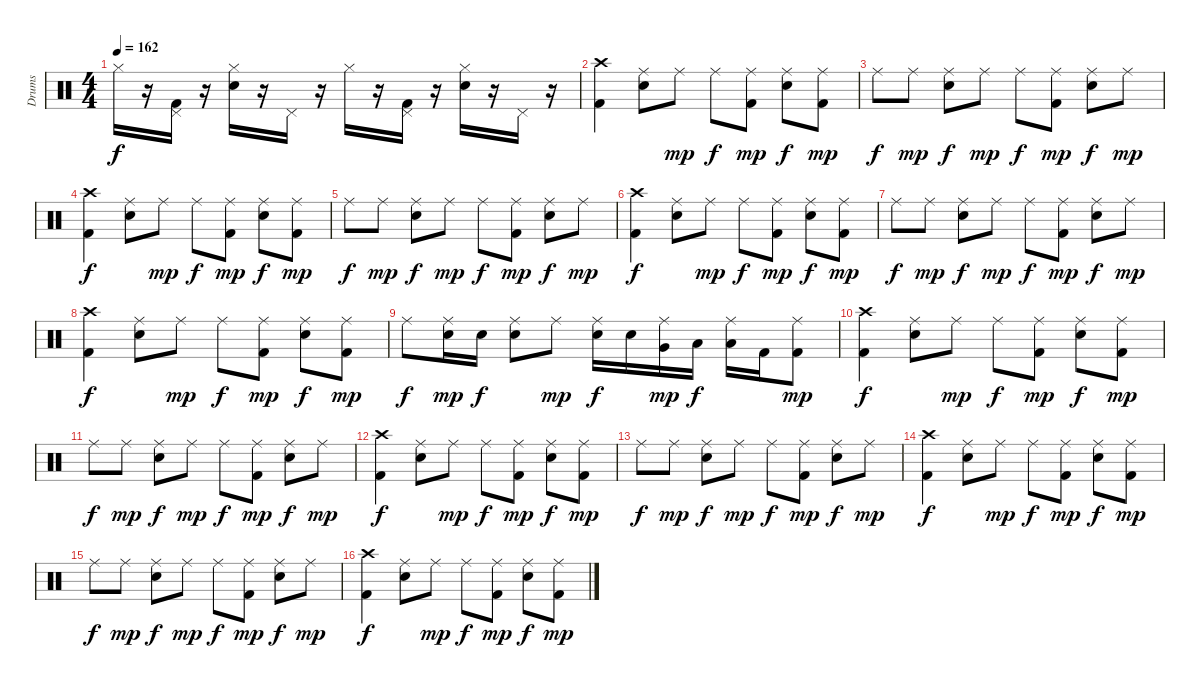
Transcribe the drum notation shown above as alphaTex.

\track ("Drums" "Drums") {instrument percussion}
\staff {score}
\articulation defaults
\ts (4 4)
\tempo 162
\clef neutral
\ks c "Hi-Hat (closed)".16{dy f}
r.16 ("Kick (hit) 2" "Pedal Hi-Hat (hit)").16 r.16 ("Electric Snare (hit)" "Hi-Hat (closed)").16 r.16 "Pedal Hi-Hat (hit)".16 r.16 "Hi-Hat (closed)".16 r.16 ("Kick (hit) 2" "Pedal Hi-Hat (hit)").16 r.16 ("Electric Snare (hit)" "Hi-Hat (closed)").16 r.16 "Pedal Hi-Hat (hit)".16 r.16 |
("Kick (hit) 2" "Crash high (hit)").4 ("Ride (middle)" "Electric Snare (hit)").8 "Ride (middle)".8{dy mp} "Ride (middle)".8{dy f} ("Kick (hit) 2" "Ride (middle)").8{dy mp} ("Electric Snare (hit)" "Ride (middle)").8{dy f} ("Kick (hit) 2" "Ride (middle)").8{dy mp} |
"Ride (middle)".8{dy f} "Ride (middle)".8{dy mp} ("Electric Snare (hit)" "Ride (middle)").8{dy f} "Ride (middle)".8{dy mp} "Ride (middle)".8{dy f} ("Kick (hit) 2" "Ride (middle)").8{dy mp} ("Electric Snare (hit)" "Ride (middle)").8{dy f} "Ride (middle)".8{dy mp} |
("Kick (hit) 2" "Crash high (hit)").4{dy f} ("Ride (middle)" "Electric Snare (hit)").8 "Ride (middle)".8{dy mp} "Ride (middle)".8{dy f} ("Kick (hit) 2" "Ride (middle)").8{dy mp} ("Electric Snare (hit)" "Ride (middle)").8{dy f} ("Kick (hit) 2" "Ride (middle)").8{dy mp} |
"Ride (middle)".8{dy f} "Ride (middle)".8{dy mp} ("Electric Snare (hit)" "Ride (middle)").8{dy f} "Ride (middle)".8{dy mp} "Ride (middle)".8{dy f} ("Kick (hit) 2" "Ride (middle)").8{dy mp} ("Electric Snare (hit)" "Ride (middle)").8{dy f} "Ride (middle)".8{dy mp} |
("Kick (hit) 2" "Crash high (hit)").4{dy f} ("Ride (middle)" "Electric Snare (hit)").8 "Ride (middle)".8{dy mp} "Ride (middle)".8{dy f} ("Kick (hit) 2" "Ride (middle)").8{dy mp} ("Electric Snare (hit)" "Ride (middle)").8{dy f} ("Kick (hit) 2" "Ride (middle)").8{dy mp} |
"Ride (middle)".8{dy f} "Ride (middle)".8{dy mp} ("Electric Snare (hit)" "Ride (middle)").8{dy f} "Ride (middle)".8{dy mp} "Ride (middle)".8{dy f} ("Kick (hit) 2" "Ride (middle)").8{dy mp} ("Electric Snare (hit)" "Ride (middle)").8{dy f} "Ride (middle)".8{dy mp} |
("Kick (hit) 2" "Crash high (hit)").4{dy f} ("Ride (middle)" "Electric Snare (hit)").8 "Ride (middle)".8{dy mp} "Ride (middle)".8{dy f} ("Kick (hit) 2" "Ride (middle)").8{dy mp} ("Electric Snare (hit)" "Ride (middle)").8{dy f} ("Kick (hit) 2" "Ride (middle)").8{dy mp} |
"Ride (middle)".8{dy f} ("Electric Snare (hit)" "Ride (middle)").16{dy mp} "Electric Snare (hit)".16{dy f} ("Electric Snare (hit)" "Ride (middle)").8 "Ride (middle)".8{dy mp} ("Electric Snare (hit)" "Ride (middle)").16{dy f} "Electric Snare (hit)".16 ("Very Low Tom (hit)" "Ride (middle)").16{dy mp} "Low Floor Tom (hit)".16{dy f} ("Low Floor Tom (hit)" "Ride (middle)").16 "Kick (hit) 2".16 ("Kick (hit) 2" "Ride (middle)").8{dy mp} |
("Kick (hit) 2" "Crash high (hit)").4{dy f} ("Ride (middle)" "Electric Snare (hit)").8 "Ride (middle)".8{dy mp} "Ride (middle)".8{dy f} ("Kick (hit) 2" "Ride (middle)").8{dy mp} ("Electric Snare (hit)" "Ride (middle)").8{dy f} ("Kick (hit) 2" "Ride (middle)").8{dy mp} |
"Ride (middle)".8{dy f} "Ride (middle)".8{dy mp} ("Electric Snare (hit)" "Ride (middle)").8{dy f} "Ride (middle)".8{dy mp} "Ride (middle)".8{dy f} ("Kick (hit) 2" "Ride (middle)").8{dy mp} ("Electric Snare (hit)" "Ride (middle)").8{dy f} "Ride (middle)".8{dy mp} |
("Kick (hit) 2" "Crash high (hit)").4{dy f} ("Ride (middle)" "Electric Snare (hit)").8 "Ride (middle)".8{dy mp} "Ride (middle)".8{dy f} ("Kick (hit) 2" "Ride (middle)").8{dy mp} ("Electric Snare (hit)" "Ride (middle)").8{dy f} ("Kick (hit) 2" "Ride (middle)").8{dy mp} |
"Ride (middle)".8{dy f} "Ride (middle)".8{dy mp} ("Electric Snare (hit)" "Ride (middle)").8{dy f} "Ride (middle)".8{dy mp} "Ride (middle)".8{dy f} ("Kick (hit) 2" "Ride (middle)").8{dy mp} ("Electric Snare (hit)" "Ride (middle)").8{dy f} "Ride (middle)".8{dy mp} |
("Kick (hit) 2" "Crash high (hit)").4{dy f} ("Ride (middle)" "Electric Snare (hit)").8 "Ride (middle)".8{dy mp} "Ride (middle)".8{dy f} ("Kick (hit) 2" "Ride (middle)").8{dy mp} ("Electric Snare (hit)" "Ride (middle)").8{dy f} ("Kick (hit) 2" "Ride (middle)").8{dy mp} |
"Ride (middle)".8{dy f} "Ride (middle)".8{dy mp} ("Electric Snare (hit)" "Ride (middle)").8{dy f} "Ride (middle)".8{dy mp} "Ride (middle)".8{dy f} ("Kick (hit) 2" "Ride (middle)").8{dy mp} ("Electric Snare (hit)" "Ride (middle)").8{dy f} "Ride (middle)".8{dy mp} |
("Kick (hit) 2" "Crash high (hit)").4{dy f} ("Ride (middle)" "Electric Snare (hit)").8 "Ride (middle)".8{dy mp} "Ride (middle)".8{dy f} ("Kick (hit) 2" "Ride (middle)").8{dy mp} ("Electric Snare (hit)" "Ride (middle)").8{dy f} ("Kick (hit) 2" "Ride (middle)").8{dy mp}
